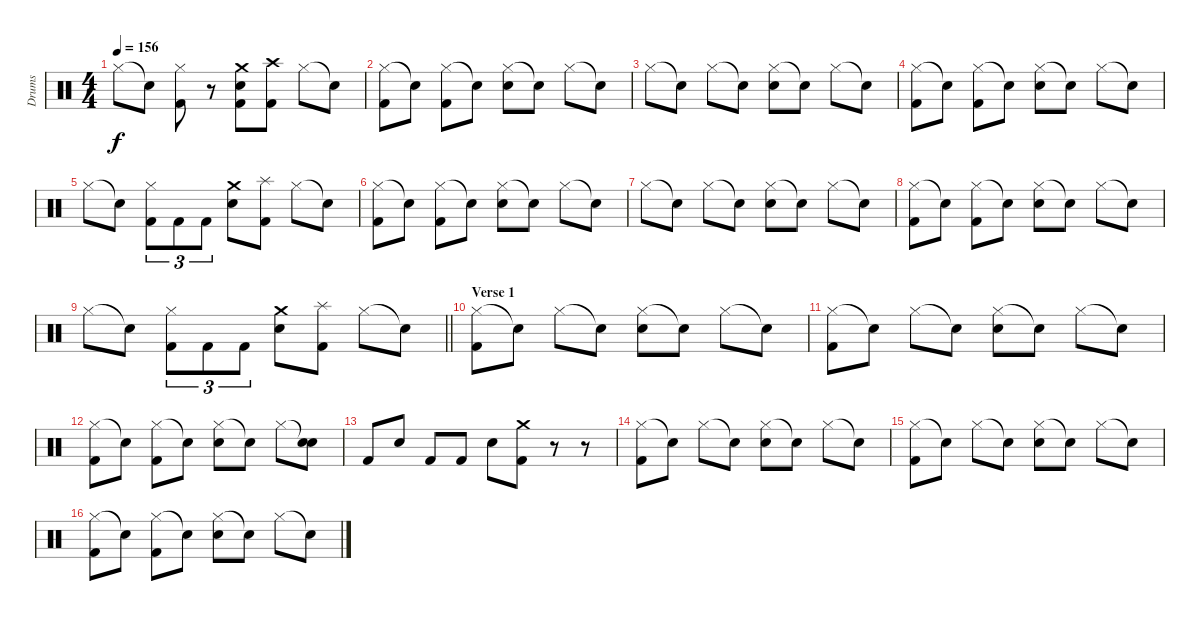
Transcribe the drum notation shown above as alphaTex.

\track ("Drums" "Drums") {instrument percussion}
\staff {score}
\articulation defaults
\ts (4 4)
\tempo 156
\clef neutral
\ks c "Hi-Hat (closed)".8{dy f} "Snare (hit)"{t}.8
("Hi-Hat (closed)" "Kick (hit) 2").8 r.8 ("Crash medium (hit)" "Snare (hit) 2" "Kick (hit) 2").8 ("Crash high (hit)" "Kick (hit) 2").8 "Hi-Hat (closed)".8 "Snare (hit)"{t}.8 |
("Hi-Hat (closed)" "Kick (hit) 2").8 "Snare (hit)"{t}.8 ("Hi-Hat (closed)" "Kick (hit) 2").8 "Snare (hit)"{t}.8 ("Hi-Hat (closed)" "Snare (hit) 2").8 "Snare (hit)"{t}.8 "Hi-Hat (closed)".8 "Snare (hit)"{t}.8 |
"Hi-Hat (closed)".8 "Snare (hit)"{t}.8 "Hi-Hat (closed)".8 "Snare (hit)"{t}.8 ("Hi-Hat (closed)" "Snare (hit) 2").8 "Snare (hit)"{t}.8 "Hi-Hat (closed)".8 "Snare (hit)"{t}.8 |
("Hi-Hat (closed)" "Kick (hit) 2").8 "Snare (hit)"{t}.8 ("Hi-Hat (closed)" "Kick (hit) 2").8 "Snare (hit)"{t}.8 ("Hi-Hat (closed)" "Snare (hit) 2").8 "Snare (hit)"{t}.8 "Hi-Hat (closed)".8 "Snare (hit)"{t}.8 |
"Hi-Hat (closed)".8 "Snare (hit)"{t}.8 ("Hi-Hat (closed)" "Kick (hit) 2").8{tu (3 2)} "Kick (hit) 2".8{tu (3 2)} "Kick (hit) 2".8{tu (3 2)} ("Crash medium (hit)" "Snare (hit) 2").8 ("Splash (hit)" "Kick (hit) 2").8 "Hi-Hat (closed)".8 "Snare (hit)"{t}.8 |
("Hi-Hat (closed)" "Kick (hit) 2").8 "Snare (hit)"{t}.8 ("Hi-Hat (closed)" "Kick (hit) 2").8 "Snare (hit)"{t}.8 ("Hi-Hat (closed)" "Snare (hit) 2").8 "Snare (hit)"{t}.8 "Hi-Hat (closed)".8 "Snare (hit)"{t}.8 |
"Hi-Hat (closed)".8 "Snare (hit)"{t}.8 "Hi-Hat (closed)".8 "Snare (hit)"{t}.8 ("Hi-Hat (closed)" "Snare (hit) 2").8 "Snare (hit)"{t}.8 "Hi-Hat (closed)".8 "Snare (hit)"{t}.8 |
("Hi-Hat (closed)" "Kick (hit) 2").8 "Snare (hit)"{t}.8 ("Hi-Hat (closed)" "Kick (hit) 2").8 "Snare (hit)"{t}.8 ("Hi-Hat (closed)" "Snare (hit) 2").8 "Snare (hit)"{t}.8 "Hi-Hat (closed)".8 "Snare (hit)"{t}.8 |
\barLineRight lightlight "Hi-Hat (closed)".8 "Snare (hit)"{t}.8
("Hi-Hat (closed)" "Kick (hit) 2").8{tu (3 2)} "Kick (hit) 2".8{tu (3 2)} "Kick (hit) 2".8{tu (3 2)} ("Crash medium (hit)" "Snare (hit) 2").8 ("Splash (hit)" "Kick (hit) 2").8 "Hi-Hat (closed)".8 "Snare (hit)"{t}.8 |
\section ("" "Verse 1")
("Hi-Hat (closed)" "Kick (hit) 2").8 "Snare (hit)"{t}.8 "Hi-Hat (closed)".8 "Snare (hit)"{t}.8 ("Hi-Hat (closed)" "Snare (hit) 2").8 "Snare (hit)"{t}.8 "Hi-Hat (closed)".8 "Snare (hit)"{t}.8 |
("Hi-Hat (closed)" "Kick (hit) 2").8 "Snare (hit)"{t}.8 "Hi-Hat (closed)".8 "Snare (hit)"{t}.8 ("Hi-Hat (closed)" "Snare (hit) 2").8 "Snare (hit)"{t}.8 "Hi-Hat (closed)".8 "Snare (hit)"{t}.8 |
("Hi-Hat (closed)" "Kick (hit) 2").8 "Snare (hit)"{t}.8 ("Hi-Hat (closed)" "Kick (hit) 2").8 "Snare (hit)"{t}.8 ("Hi-Hat (closed)" "Snare (hit) 2").8 "Snare (hit)"{t}.8 "Hi-Hat (closed)".8 ("Snare (hit)"{t} "Snare (hit) 2").8 |
"Kick (hit) 2".8 "Snare (hit) 2".8 "Kick (hit) 2".8 "Kick (hit) 2".8 "Snare (hit) 2".8 ("Crash medium (hit)" "Kick (hit) 2").8 r.8 r.8 |
("Hi-Hat (closed)" "Kick (hit) 2").8 "Snare (hit)"{t}.8 "Hi-Hat (closed)".8 "Snare (hit)"{t}.8 ("Hi-Hat (closed)" "Snare (hit) 2").8 "Snare (hit)"{t}.8 "Hi-Hat (closed)".8 "Snare (hit)"{t}.8 |
("Hi-Hat (closed)" "Kick (hit) 2").8 "Snare (hit)"{t}.8 "Hi-Hat (closed)".8 "Snare (hit)"{t}.8 ("Hi-Hat (closed)" "Snare (hit) 2").8 "Snare (hit)"{t}.8 "Hi-Hat (closed)".8 "Snare (hit)"{t}.8 |
("Hi-Hat (closed)" "Kick (hit) 2").8 "Snare (hit)"{t}.8 ("Hi-Hat (closed)" "Kick (hit) 2").8 "Snare (hit)"{t}.8 ("Hi-Hat (closed)" "Snare (hit) 2").8 "Snare (hit)"{t}.8 "Hi-Hat (closed)".8 "Snare (hit)"{t}.8
